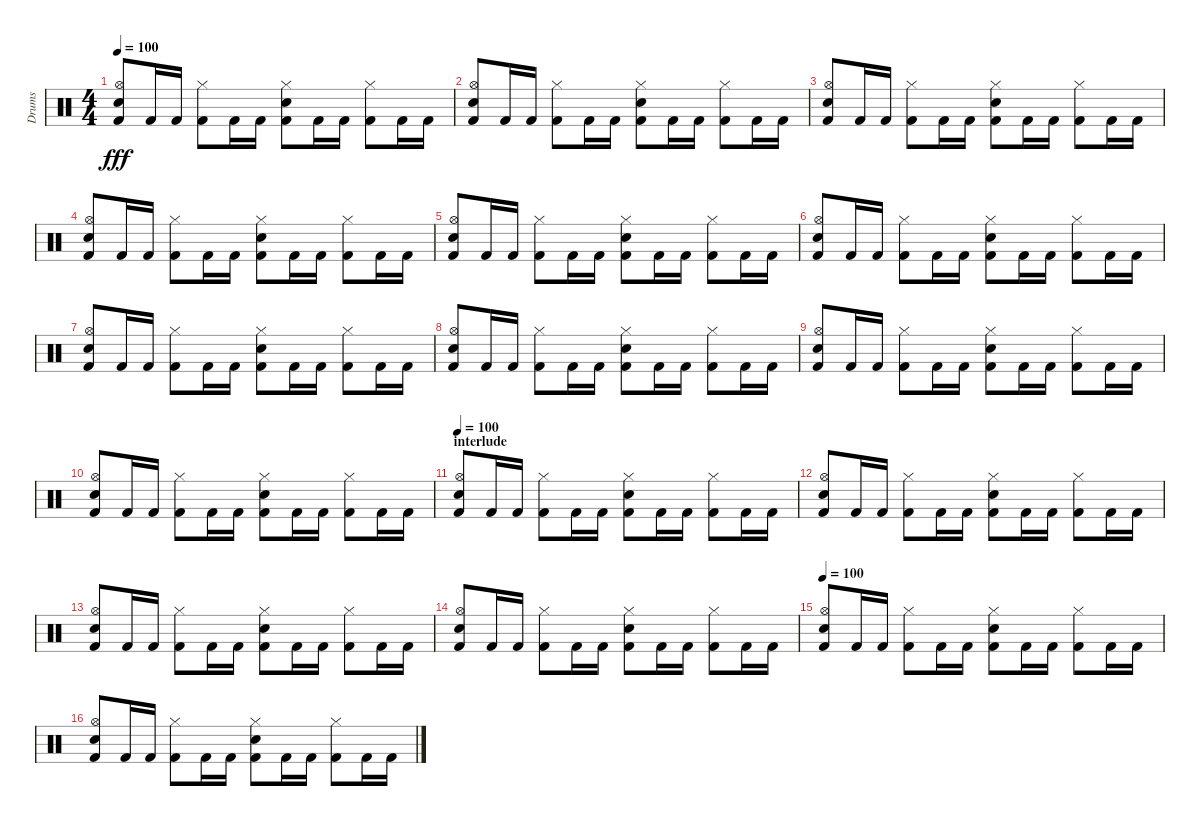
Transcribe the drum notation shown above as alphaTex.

\track ("Drums" "Drums") {instrument percussion}
\staff {score}
\articulation defaults
\ts (4 4)
\tempo 100
\clef neutral
\ks c
("Electric Snare (hit)" "Hi-Hat (open)" "Kick (hit) 2").8{dy fff} "Kick (hit) 2".16 "Kick (hit) 2".16 ("Hi-Hat (closed)" "Kick (hit) 2").8 "Kick (hit) 2".16 "Kick (hit) 2".16 ("Hi-Hat (closed)" "Electric Snare (hit)" "Kick (hit) 2").8 "Kick (hit) 2".16 "Kick (hit) 2".16 ("Hi-Hat (closed)" "Kick (hit) 2").8 "Kick (hit) 2".16 "Kick (hit) 2".16 |
("Electric Snare (hit)" "Hi-Hat (open)" "Kick (hit) 2").8 "Kick (hit) 2".16 "Kick (hit) 2".16 ("Hi-Hat (closed)" "Kick (hit) 2").8 "Kick (hit) 2".16 "Kick (hit) 2".16 ("Hi-Hat (closed)" "Electric Snare (hit)" "Kick (hit) 2").8 "Kick (hit) 2".16 "Kick (hit) 2".16 ("Hi-Hat (closed)" "Kick (hit) 2").8 "Kick (hit) 2".16 "Kick (hit) 2".16 |
("Electric Snare (hit)" "Hi-Hat (open)" "Kick (hit) 2").8 "Kick (hit) 2".16 "Kick (hit) 2".16 ("Hi-Hat (closed)" "Kick (hit) 2").8 "Kick (hit) 2".16 "Kick (hit) 2".16 ("Hi-Hat (closed)" "Electric Snare (hit)" "Kick (hit) 2").8 "Kick (hit) 2".16 "Kick (hit) 2".16 ("Hi-Hat (closed)" "Kick (hit) 2").8 "Kick (hit) 2".16 "Kick (hit) 2".16 |
("Electric Snare (hit)" "Hi-Hat (open)" "Kick (hit) 2").8 "Kick (hit) 2".16 "Kick (hit) 2".16 ("Hi-Hat (closed)" "Kick (hit) 2").8 "Kick (hit) 2".16 "Kick (hit) 2".16 ("Hi-Hat (closed)" "Electric Snare (hit)" "Kick (hit) 2").8 "Kick (hit) 2".16 "Kick (hit) 2".16 ("Hi-Hat (closed)" "Kick (hit) 2").8 "Kick (hit) 2".16 "Kick (hit) 2".16 |
("Electric Snare (hit)" "Hi-Hat (open)" "Kick (hit) 2").8 "Kick (hit) 2".16 "Kick (hit) 2".16 ("Hi-Hat (closed)" "Kick (hit) 2").8 "Kick (hit) 2".16 "Kick (hit) 2".16 ("Hi-Hat (closed)" "Electric Snare (hit)" "Kick (hit) 2").8 "Kick (hit) 2".16 "Kick (hit) 2".16 ("Hi-Hat (closed)" "Kick (hit) 2").8 "Kick (hit) 2".16 "Kick (hit) 2".16 |
("Electric Snare (hit)" "Hi-Hat (open)" "Kick (hit) 2").8 "Kick (hit) 2".16 "Kick (hit) 2".16 ("Hi-Hat (closed)" "Kick (hit) 2").8 "Kick (hit) 2".16 "Kick (hit) 2".16 ("Hi-Hat (closed)" "Electric Snare (hit)" "Kick (hit) 2").8 "Kick (hit) 2".16 "Kick (hit) 2".16 ("Hi-Hat (closed)" "Kick (hit) 2").8 "Kick (hit) 2".16 "Kick (hit) 2".16 |
("Electric Snare (hit)" "Hi-Hat (open)" "Kick (hit) 2").8 "Kick (hit) 2".16 "Kick (hit) 2".16 ("Hi-Hat (closed)" "Kick (hit) 2").8 "Kick (hit) 2".16 "Kick (hit) 2".16 ("Hi-Hat (closed)" "Electric Snare (hit)" "Kick (hit) 2").8 "Kick (hit) 2".16 "Kick (hit) 2".16 ("Hi-Hat (closed)" "Kick (hit) 2").8 "Kick (hit) 2".16 "Kick (hit) 2".16 |
("Electric Snare (hit)" "Hi-Hat (open)" "Kick (hit) 2").8 "Kick (hit) 2".16 "Kick (hit) 2".16 ("Hi-Hat (closed)" "Kick (hit) 2").8 "Kick (hit) 2".16 "Kick (hit) 2".16 ("Hi-Hat (closed)" "Electric Snare (hit)" "Kick (hit) 2").8 "Kick (hit) 2".16 "Kick (hit) 2".16 ("Hi-Hat (closed)" "Kick (hit) 2").8 "Kick (hit) 2".16 "Kick (hit) 2".16 |
("Electric Snare (hit)" "Hi-Hat (open)" "Kick (hit) 2").8 "Kick (hit) 2".16 "Kick (hit) 2".16 ("Hi-Hat (closed)" "Kick (hit) 2").8 "Kick (hit) 2".16 "Kick (hit) 2".16 ("Hi-Hat (closed)" "Electric Snare (hit)" "Kick (hit) 2").8 "Kick (hit) 2".16 "Kick (hit) 2".16 ("Hi-Hat (closed)" "Kick (hit) 2").8 "Kick (hit) 2".16 "Kick (hit) 2".16 |
("Electric Snare (hit)" "Hi-Hat (open)" "Kick (hit) 2").8 "Kick (hit) 2".16 "Kick (hit) 2".16 ("Hi-Hat (closed)" "Kick (hit) 2").8 "Kick (hit) 2".16 "Kick (hit) 2".16 ("Hi-Hat (closed)" "Electric Snare (hit)" "Kick (hit) 2").8 "Kick (hit) 2".16 "Kick (hit) 2".16 ("Hi-Hat (closed)" "Kick (hit) 2").8 "Kick (hit) 2".16 "Kick (hit) 2".16 |
\section ("" "interlude")
\tempo 100
("Electric Snare (hit)" "Hi-Hat (open)" "Kick (hit) 2").8 "Kick (hit) 2".16 "Kick (hit) 2".16 ("Hi-Hat (closed)" "Kick (hit) 2").8 "Kick (hit) 2".16 "Kick (hit) 2".16 ("Hi-Hat (closed)" "Electric Snare (hit)" "Kick (hit) 2").8 "Kick (hit) 2".16 "Kick (hit) 2".16 ("Hi-Hat (closed)" "Kick (hit) 2").8 "Kick (hit) 2".16 "Kick (hit) 2".16 |
("Electric Snare (hit)" "Hi-Hat (open)" "Kick (hit) 2").8 "Kick (hit) 2".16 "Kick (hit) 2".16 ("Hi-Hat (closed)" "Kick (hit) 2").8 "Kick (hit) 2".16 "Kick (hit) 2".16 ("Hi-Hat (closed)" "Electric Snare (hit)" "Kick (hit) 2").8 "Kick (hit) 2".16 "Kick (hit) 2".16 ("Hi-Hat (closed)" "Kick (hit) 2").8 "Kick (hit) 2".16 "Kick (hit) 2".16 |
("Electric Snare (hit)" "Hi-Hat (open)" "Kick (hit) 2").8 "Kick (hit) 2".16 "Kick (hit) 2".16 ("Hi-Hat (closed)" "Kick (hit) 2").8 "Kick (hit) 2".16 "Kick (hit) 2".16 ("Hi-Hat (closed)" "Electric Snare (hit)" "Kick (hit) 2").8 "Kick (hit) 2".16 "Kick (hit) 2".16 ("Hi-Hat (closed)" "Kick (hit) 2").8 "Kick (hit) 2".16 "Kick (hit) 2".16 |
("Electric Snare (hit)" "Hi-Hat (open)" "Kick (hit) 2").8 "Kick (hit) 2".16 "Kick (hit) 2".16 ("Hi-Hat (closed)" "Kick (hit) 2").8 "Kick (hit) 2".16 "Kick (hit) 2".16 ("Hi-Hat (closed)" "Electric Snare (hit)" "Kick (hit) 2").8 "Kick (hit) 2".16 "Kick (hit) 2".16 ("Hi-Hat (closed)" "Kick (hit) 2").8 "Kick (hit) 2".16 "Kick (hit) 2".16 |
\tempo 100
("Electric Snare (hit)" "Hi-Hat (open)" "Kick (hit) 2").8 "Kick (hit) 2".16 "Kick (hit) 2".16 ("Hi-Hat (closed)" "Kick (hit) 2").8 "Kick (hit) 2".16 "Kick (hit) 2".16 ("Hi-Hat (closed)" "Electric Snare (hit)" "Kick (hit) 2").8 "Kick (hit) 2".16 "Kick (hit) 2".16 ("Hi-Hat (closed)" "Kick (hit) 2").8 "Kick (hit) 2".16 "Kick (hit) 2".16 |
("Electric Snare (hit)" "Hi-Hat (open)" "Kick (hit) 2").8 "Kick (hit) 2".16 "Kick (hit) 2".16 ("Hi-Hat (closed)" "Kick (hit) 2").8 "Kick (hit) 2".16 "Kick (hit) 2".16 ("Hi-Hat (closed)" "Electric Snare (hit)" "Kick (hit) 2").8 "Kick (hit) 2".16 "Kick (hit) 2".16 ("Hi-Hat (closed)" "Kick (hit) 2").8 "Kick (hit) 2".16 "Kick (hit) 2".16
